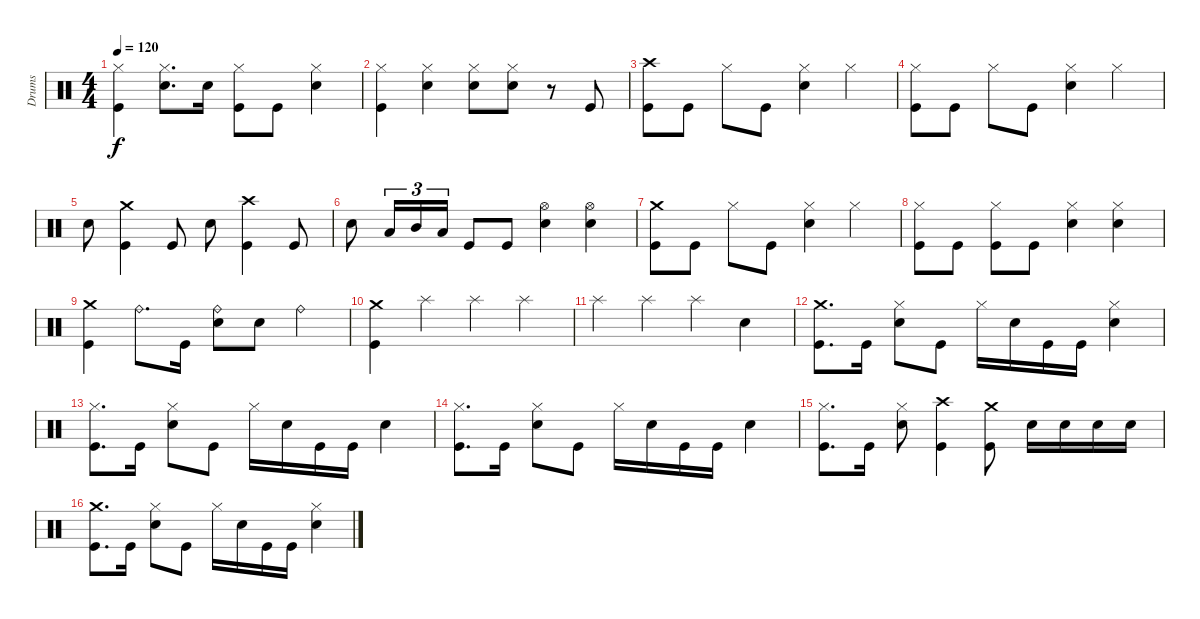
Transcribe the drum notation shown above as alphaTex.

\track ("Drums" "Drums") {instrument percussion}
\staff {score}
\articulation defaults
\ts (4 4)
\tempo 120
\clef neutral
\ks c
("Kick (hit)" "Hi-Hat (closed)").4{dy f} ("Snare (hit) 2" "Hi-Hat (closed)").8{d} "Snare (hit) 2".16 ("Kick (hit)" "Hi-Hat (closed)").8 "Kick (hit)".8 ("Snare (hit) 2" "Hi-Hat (closed)").4 |
("Kick (hit)" "Hi-Hat (closed)").4 ("Snare (hit) 2" "Hi-Hat (closed)").4 ("Snare (hit) 2" "Hi-Hat (closed)").8 ("Snare (hit) 2" "Hi-Hat (closed)").8 r.8 "Kick (hit)".8 |
("Kick (hit)" "Crash high (hit)").8 "Kick (hit)".8 "Hi-Hat (closed)".8 "Kick (hit)".8 ("Snare (hit) 2" "Hi-Hat (closed)").4 "Hi-Hat (closed)".4 |
("Kick (hit)" "Hi-Hat (closed)").8 "Kick (hit)".8 "Hi-Hat (closed)".8 "Kick (hit)".8 ("Snare (hit) 2" "Hi-Hat (closed)").4 "Hi-Hat (closed)".4 |
"Snare (hit) 2".8 ("Kick (hit)" "Crash medium (hit)").4 "Kick (hit)".8 "Snare (hit) 2".8 ("Kick (hit)" "Crash high (hit)").4 "Kick (hit)".8 |
"Snare (hit) 2".8 "Low Tom (hit)".16{tu (3 2)} "Mid Tom (hit)".16{tu (3 2)} "Low Floor Tom (hit)".16{tu (3 2)} "Kick (hit)".8 "Kick (hit)".8 ("Snare (hit) 2" "Hi-Hat (open)").4 ("Snare (hit) 2" "Hi-Hat (open)").4 |
("Kick (hit)" "Crash medium (hit)").8 "Kick (hit)".8 "Hi-Hat (closed)".8 "Kick (hit)".8 ("Snare (hit) 2" "Hi-Hat (closed)").4 "Hi-Hat (closed)".4 |
("Kick (hit)" "Hi-Hat (closed)").8 "Kick (hit)".8 ("Kick (hit)" "Hi-Hat (closed)").8 "Kick (hit)".8 ("Snare (hit) 2" "Hi-Hat (closed)").4 ("Snare (hit) 2" "Hi-Hat (closed)").4 |
("Kick (hit)" "Crash medium (hit)").4 "Ride (bell)".8{d} "Kick (hit)".16 ("Snare (hit) 2" "Ride (bell)").8 "Snare (hit) 2".8 "Ride (bell)".4 |
("Kick (hit)" "Crash medium (hit)").4 "Splash (hit)".4 "Splash (hit)".4 "Splash (hit)".4 |
"Splash (hit)".4 "Splash (hit)".4 "Splash (hit)".4 "Snare (hit) 2".4 |
("Kick (hit)" "Crash medium (hit)").8{d} "Kick (hit)".16 ("Snare (hit) 2" "Hi-Hat (closed)").8 "Kick (hit)".8 "Hi-Hat (closed)".16 "Snare (hit) 2".16 "Kick (hit)".16 "Kick (hit)".16 ("Snare (hit) 2" "Hi-Hat (closed)").4 |
("Kick (hit)" "Hi-Hat (closed)").8{d} "Kick (hit)".16 ("Snare (hit) 2" "Hi-Hat (closed)").8 "Kick (hit)".8 "Hi-Hat (closed)".16 "Snare (hit) 2".16 "Kick (hit)".16 "Kick (hit)".16 "Snare (hit) 2".4 |
("Kick (hit)" "Hi-Hat (closed)").8{d} "Kick (hit)".16 ("Snare (hit) 2" "Hi-Hat (closed)").8 "Kick (hit)".8 "Hi-Hat (closed)".16 "Snare (hit) 2".16 "Kick (hit)".16 "Kick (hit)".16 "Snare (hit) 2".4 |
("Kick (hit)" "Hi-Hat (closed)").8{d} "Kick (hit)".16 ("Snare (hit) 2" "Hi-Hat (closed)").8 ("Kick (hit)" "Crash high (hit)").4 ("Kick (hit)" "Crash medium (hit)").8 "Snare (hit) 2".16 "Snare (hit) 2".16 "Snare (hit) 2".16 "Snare (hit) 2".16 |
("Kick (hit)" "Crash medium (hit)").8{d} "Kick (hit)".16 ("Snare (hit) 2" "Hi-Hat (closed)").8 "Kick (hit)".8 "Hi-Hat (closed)".16 "Snare (hit) 2".16 "Kick (hit)".16 "Kick (hit)".16 ("Snare (hit) 2" "Hi-Hat (closed)").4
